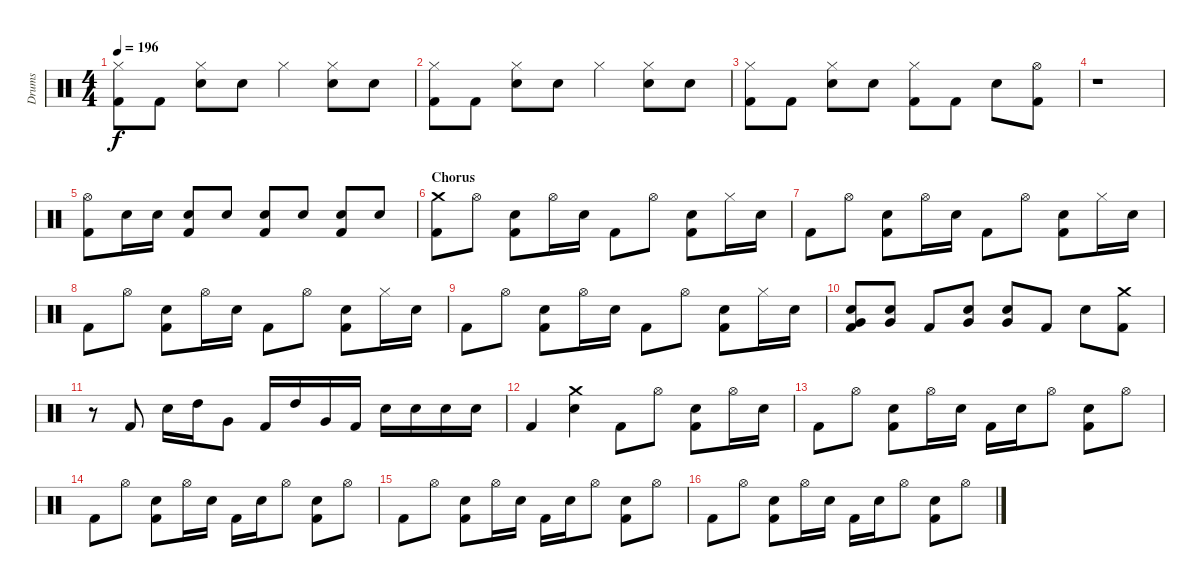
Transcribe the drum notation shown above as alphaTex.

\track ("Drums" "Drums") {instrument percussion}
\staff {score}
\articulation defaults
\ts (4 4)
\tempo 196
\clef neutral
\ks c
("Hi-Hat (closed)" "Kick (hit) 2").8{dy f} "Kick (hit) 2".8 ("Hi-Hat (closed)" "Snare (hit) 2").8 "Snare (hit) 2".8 "Hi-Hat (closed)".4 ("Hi-Hat (closed)" "Snare (hit) 2").8 "Snare (hit) 2".8 |
("Hi-Hat (closed)" "Kick (hit) 2").8 "Kick (hit) 2".8 ("Hi-Hat (closed)" "Snare (hit) 2").8 "Snare (hit) 2".8 "Hi-Hat (closed)".4 ("Hi-Hat (closed)" "Snare (hit) 2").8 "Snare (hit) 2".8 |
("Hi-Hat (closed)" "Kick (hit) 2").8 "Kick (hit) 2".8 ("Hi-Hat (closed)" "Snare (hit) 2").8 "Snare (hit) 2".8 ("Hi-Hat (closed)" "Kick (hit) 2").8 "Kick (hit) 2".8 "Snare (hit) 2".8 ("Hi-Hat (open)" "Kick (hit) 2").8 |
r.1 |
("Hi-Hat (open)" "Kick (hit) 2").8 "Snare (hit) 2".16 "Snare (hit) 2".16 ("Snare (hit) 2" "Kick (hit) 2").8 "Snare (hit) 2".8 ("Snare (hit) 2" "Kick (hit) 2").8 "Snare (hit) 2".8 ("Snare (hit) 2" "Kick (hit) 2").8 "Snare (hit) 2".8 |
\section ("" "Chorus")
("Crash medium (hit)" "Kick (hit) 2").8 "Hi-Hat (open)".8 ("Snare (hit) 2" "Kick (hit) 2").8 "Hi-Hat (open)".16 "Snare (hit) 2".16 "Kick (hit) 2".8 "Hi-Hat (open)".8 ("Snare (hit) 2" "Kick (hit) 2").8 "Hi-Hat (closed)".16 "Snare (hit) 2".16 |
"Kick (hit) 2".8 "Hi-Hat (open)".8 ("Snare (hit) 2" "Kick (hit) 2").8 "Hi-Hat (open)".16 "Snare (hit) 2".16 "Kick (hit) 2".8 "Hi-Hat (open)".8 ("Snare (hit) 2" "Kick (hit) 2").8 "Hi-Hat (closed)".16 "Snare (hit) 2".16 |
"Kick (hit) 2".8 "Hi-Hat (open)".8 ("Snare (hit) 2" "Kick (hit) 2").8 "Hi-Hat (open)".16 "Snare (hit) 2".16 "Kick (hit) 2".8 "Hi-Hat (open)".8 ("Snare (hit) 2" "Kick (hit) 2").8 "Hi-Hat (closed)".16 "Snare (hit) 2".16 |
"Kick (hit) 2".8 "Hi-Hat (open)".8 ("Snare (hit) 2" "Kick (hit) 2").8 "Hi-Hat (open)".16 "Snare (hit) 2".16 "Kick (hit) 2".8 "Hi-Hat (open)".8 ("Snare (hit) 2" "Kick (hit) 2").8 "Hi-Hat (closed)".16 "Snare (hit) 2".16 |
("Snare (hit) 2" "Very Low Tom (hit)" "Kick (hit) 2").8 ("Snare (hit) 2" "Very Low Tom (hit)").8 "Kick (hit) 2".8 ("Snare (hit) 2" "Very Low Tom (hit)").8 ("Snare (hit) 2" "Very Low Tom (hit)").8 "Kick (hit) 2".8 "Snare (hit) 2".8 ("Crash medium (hit)" "Kick (hit) 2").8 |
r.8 "Kick (hit) 2".8 "Snare (hit) 2".16 "High Tom (hit)".16 "Very Low Tom (hit)".8 "Kick (hit) 2".16 "High Tom (hit)".16 "Very Low Tom (hit)".16 "Kick (hit) 2".16 "Snare (hit) 2".16 "Snare (hit) 2".16 "Snare (hit) 2".16 "Snare (hit) 2".16 |
"Kick (hit) 2".4 ("Crash medium (hit)" "Snare (hit) 2").4 "Kick (hit) 2".8 "Hi-Hat (open)".8 ("Snare (hit) 2" "Kick (hit) 2").8 "Hi-Hat (open)".16 "Snare (hit) 2".16 |
"Kick (hit) 2".8 "Hi-Hat (open)".8 ("Snare (hit) 2" "Kick (hit) 2").8 "Hi-Hat (open)".16 "Snare (hit) 2".16 "Kick (hit) 2".16 "Snare (hit) 2".16 "Hi-Hat (open)".8 ("Snare (hit) 2" "Kick (hit) 2").8 "Hi-Hat (open)".8 |
"Kick (hit) 2".8 "Hi-Hat (open)".8 ("Snare (hit) 2" "Kick (hit) 2").8 "Hi-Hat (open)".16 "Snare (hit) 2".16 "Kick (hit) 2".16 "Snare (hit) 2".16 "Hi-Hat (open)".8 ("Snare (hit) 2" "Kick (hit) 2").8 "Hi-Hat (open)".8 |
"Kick (hit) 2".8 "Hi-Hat (open)".8 ("Snare (hit) 2" "Kick (hit) 2").8 "Hi-Hat (open)".16 "Snare (hit) 2".16 "Kick (hit) 2".16 "Snare (hit) 2".16 "Hi-Hat (open)".8 ("Snare (hit) 2" "Kick (hit) 2").8 "Hi-Hat (open)".8 |
"Kick (hit) 2".8 "Hi-Hat (open)".8 ("Snare (hit) 2" "Kick (hit) 2").8 "Hi-Hat (open)".16 "Snare (hit) 2".16 "Kick (hit) 2".16 "Snare (hit) 2".16 "Hi-Hat (open)".8 ("Snare (hit) 2" "Kick (hit) 2").8 "Hi-Hat (open)".8
